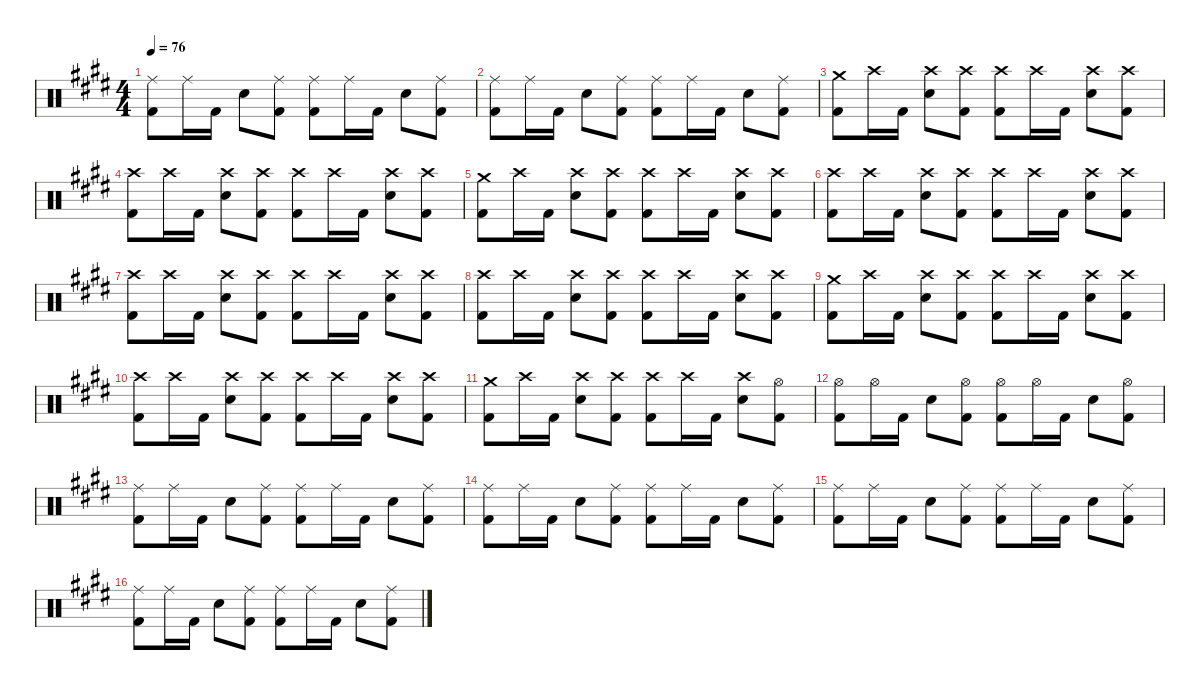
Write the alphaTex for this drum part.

\defaultSystemsLayout 4
\hideDynamics
\bracketExtendMode nobrackets
\singleTrackTrackNamePolicy hidden
\multiTrackTrackNamePolicy hidden
\firstSystemTrackNameMode fullname
\otherSystemsTrackNameOrientation horizontal
\track ("Drums" "drm.") {instrument percussion}
\staff {score}
\articulation defaults
\ts (4 4)
\tempo 76
\clef neutral
\ks e
("Ride (middle)"{acc forcenatural} "Kick (hit) 2"{acc forcenatural}).8{dy f beam Down} "Ride (middle)"{acc forcenatural}.16{beam Down} "Kick (hit) 2"{acc forcenatural}.16{beam Down} "Snare (hit) 2"{acc forcenatural}.8{beam Down} ("Ride (middle)"{acc forcenatural} "Kick (hit) 2"{acc forcenatural}).8{beam Down} ("Ride (middle)"{acc forcenatural} "Kick (hit) 2"{acc forcenatural}).8{beam Down} "Ride (middle)"{acc forcenatural}.16{beam Down} "Kick (hit) 2"{acc forcenatural}.16{beam Down} "Snare (hit) 2"{acc forcenatural}.8{beam Down} ("Ride (middle)"{acc forcenatural} "Kick (hit) 2"{acc forcenatural}).8{beam Down} |
("Ride (middle)"{acc forcenatural} "Kick (hit) 2"{acc forcenatural}).8{beam Down} "Ride (middle)"{acc forcenatural}.16{beam Down} "Kick (hit) 2"{acc forcenatural}.16{beam Down} "Snare (hit) 2"{acc forcenatural}.8{beam Down} ("Ride (middle)"{acc forcenatural} "Kick (hit) 2"{acc forcenatural}).8{beam Down} ("Ride (middle)"{acc forcenatural} "Kick (hit) 2"{acc forcenatural}).8{beam Down} "Ride (middle)"{acc forcenatural}.16{beam Down} "Kick (hit) 2"{acc forcenatural}.16{beam Down} "Snare (hit) 2"{acc forcenatural}.8{beam Down} ("Ride (middle)"{acc forcenatural} "Kick (hit) 2"{acc forcenatural}).8{beam Down} |
("Crash medium (hit)"{acc forcenatural} "Kick (hit) 2"{acc forcenatural}).8{beam Down} "Crash high (hit)"{acc forcenatural}.16{dy mf beam Down} "Kick (hit) 2"{acc forcenatural}.16{dy f beam Down} ("Crash high (hit)"{acc forcenatural} "Snare (hit) 2"{acc forcenatural}).8{dy mf beam Down} ("Crash high (hit)"{acc forcenatural} "Kick (hit) 2"{acc forcenatural}).8{beam Down} ("Crash high (hit)"{acc forcenatural} "Kick (hit) 2"{acc forcenatural}).8{beam Down} "Crash high (hit)"{acc forcenatural}.16{beam Down} "Kick (hit) 2"{acc forcenatural}.16{dy f beam Down} ("Crash high (hit)"{acc forcenatural} "Snare (hit) 2"{acc forcenatural}).8{dy mf beam Down} ("Crash high (hit)"{acc forcenatural} "Kick (hit) 2"{acc forcenatural}).8{beam Down} |
("Crash high (hit)"{acc forcenatural} "Kick (hit) 2"{acc forcenatural}).8{beam Down} "Crash high (hit)"{acc forcenatural}.16{beam Down} "Kick (hit) 2"{acc forcenatural}.16{dy f beam Down} ("Crash high (hit)"{acc forcenatural} "Snare (hit) 2"{acc forcenatural}).8{dy mf beam Down} ("Crash high (hit)"{acc forcenatural} "Kick (hit) 2"{acc forcenatural}).8{beam Down} ("Crash high (hit)"{acc forcenatural} "Kick (hit) 2"{acc forcenatural}).8{beam Down} "Crash high (hit)"{acc forcenatural}.16{beam Down} "Kick (hit) 2"{acc forcenatural}.16{dy f beam Down} ("Crash high (hit)"{acc forcenatural} "Snare (hit) 2"{acc forcenatural}).8{dy mf beam Down} ("Crash high (hit)"{acc forcenatural} "Kick (hit) 2"{acc forcenatural}).8{beam Down} |
("Crash medium (hit)"{acc forcenatural} "Kick (hit) 2"{acc forcenatural}).8{dy f beam Down} "Crash high (hit)"{acc forcenatural}.16{dy mf beam Down} "Kick (hit) 2"{acc forcenatural}.16{dy f beam Down} ("Crash high (hit)"{acc forcenatural} "Snare (hit) 2"{acc forcenatural}).8{dy mf beam Down} ("Crash high (hit)"{acc forcenatural} "Kick (hit) 2"{acc forcenatural}).8{beam Down} ("Crash high (hit)"{acc forcenatural} "Kick (hit) 2"{acc forcenatural}).8{beam Down} "Crash high (hit)"{acc forcenatural}.16{beam Down} "Kick (hit) 2"{acc forcenatural}.16{dy f beam Down} ("Crash high (hit)"{acc forcenatural} "Snare (hit) 2"{acc forcenatural}).8{dy mf beam Down} ("Crash high (hit)"{acc forcenatural} "Kick (hit) 2"{acc forcenatural}).8{beam Down} |
("Crash high (hit)"{acc forcenatural} "Kick (hit) 2"{acc forcenatural}).8{beam Down} "Crash high (hit)"{acc forcenatural}.16{dy mp beam Down} "Kick (hit) 2"{acc forcenatural}.16{dy f beam Down} ("Crash high (hit)"{acc forcenatural} "Snare (hit) 2"{acc forcenatural}).8{dy mf beam Down} ("Crash high (hit)"{acc forcenatural} "Kick (hit) 2"{acc forcenatural}).8{beam Down} ("Crash high (hit)"{acc forcenatural} "Kick (hit) 2"{acc forcenatural}).8{beam Down} "Crash high (hit)"{acc forcenatural}.16{beam Down} "Kick (hit) 2"{acc forcenatural}.16{dy f beam Down} ("Crash high (hit)"{acc forcenatural} "Snare (hit) 2"{acc forcenatural}).8{dy mf beam Down} ("Crash high (hit)"{acc forcenatural} "Kick (hit) 2"{acc forcenatural}).8{beam Down} |
("Crash high (hit)"{acc forcenatural} "Kick (hit) 2"{acc forcenatural}).8{beam Down} "Crash high (hit)"{acc forcenatural}.16{dy mp beam Down} "Kick (hit) 2"{acc forcenatural}.16{dy f beam Down} ("Crash high (hit)"{acc forcenatural} "Snare (hit) 2"{acc forcenatural}).8{dy mf beam Down} ("Crash high (hit)"{acc forcenatural} "Kick (hit) 2"{acc forcenatural}).8{beam Down} ("Crash high (hit)"{acc forcenatural} "Kick (hit) 2"{acc forcenatural}).8{beam Down} "Crash high (hit)"{acc forcenatural}.16{beam Down} "Kick (hit) 2"{acc forcenatural}.16{dy f beam Down} ("Crash high (hit)"{acc forcenatural} "Snare (hit) 2"{acc forcenatural}).8{dy mf beam Down} ("Crash high (hit)"{acc forcenatural} "Kick (hit) 2"{acc forcenatural}).8{beam Down} |
("Crash high (hit)"{acc forcenatural} "Kick (hit) 2"{acc forcenatural}).8{beam Down} "Crash high (hit)"{acc forcenatural}.16{beam Down} "Kick (hit) 2"{acc forcenatural}.16{dy f beam Down} ("Crash high (hit)"{acc forcenatural} "Snare (hit) 2"{acc forcenatural}).8{dy mf beam Down} ("Crash high (hit)"{acc forcenatural} "Kick (hit) 2"{acc forcenatural}).8{beam Down} ("Crash high (hit)"{acc forcenatural} "Kick (hit) 2"{acc forcenatural}).8{beam Down} "Crash high (hit)"{acc forcenatural}.16{beam Down} "Kick (hit) 2"{acc forcenatural}.16{dy f beam Down} ("Crash high (hit)"{acc forcenatural} "Snare (hit) 2"{acc forcenatural}).8{dy mf beam Down} ("Crash high (hit)"{acc forcenatural} "Kick (hit) 2"{acc forcenatural}).8{beam Down} |
("Crash medium (hit)"{acc forcenatural} "Kick (hit) 2"{acc forcenatural}).8{dy f beam Down} "Crash high (hit)"{acc forcenatural}.16{dy mf beam Down} "Kick (hit) 2"{acc forcenatural}.16{dy f beam Down} ("Crash high (hit)"{acc forcenatural} "Snare (hit) 2"{acc forcenatural}).8{dy mf beam Down} ("Crash high (hit)"{acc forcenatural} "Kick (hit) 2"{acc forcenatural}).8{beam Down} ("Crash high (hit)"{acc forcenatural} "Kick (hit) 2"{acc forcenatural}).8{beam Down} "Crash high (hit)"{acc forcenatural}.16{beam Down} "Kick (hit) 2"{acc forcenatural}.16{dy f beam Down} ("Crash high (hit)"{acc forcenatural} "Snare (hit) 2"{acc forcenatural}).8{dy mf beam Down} ("Crash high (hit)"{acc forcenatural} "Kick (hit) 2"{acc forcenatural}).8{beam Down} |
("Crash high (hit)"{acc forcenatural} "Kick (hit) 2"{acc forcenatural}).8{dy f beam Down} "Crash high (hit)"{acc forcenatural}.16{beam Down} "Kick (hit) 2"{acc forcenatural}.16{beam Down} ("Crash high (hit)"{acc forcenatural} "Snare (hit) 2"{acc forcenatural}).8{beam Down} ("Crash high (hit)"{acc forcenatural} "Kick (hit) 2"{acc forcenatural}).8{beam Down} ("Crash high (hit)"{acc forcenatural} "Kick (hit) 2"{acc forcenatural}).8{beam Down} "Crash high (hit)"{acc forcenatural}.16{beam Down} "Kick (hit) 2"{acc forcenatural}.16{beam Down} ("Crash high (hit)"{acc forcenatural} "Snare (hit) 2"{acc forcenatural}).8{beam Down} ("Crash high (hit)"{acc forcenatural} "Kick (hit) 2"{acc forcenatural}).8{beam Down} |
("Crash medium (hit)"{acc forcenatural} "Kick (hit) 2"{acc forcenatural}).8{beam Down} "Crash high (hit)"{acc forcenatural}.16{beam Down} "Kick (hit) 2"{acc forcenatural}.16{beam Down} ("Crash high (hit)"{acc forcenatural} "Snare (hit) 2"{acc forcenatural}).8{beam Down} ("Crash high (hit)"{acc forcenatural} "Kick (hit) 2"{acc forcenatural}).8{beam Down} ("Crash high (hit)"{acc forcenatural} "Kick (hit) 2"{acc forcenatural}).8{beam Down} "Crash high (hit)"{acc forcenatural}.16{beam Down} "Kick (hit) 2"{acc forcenatural}.16{beam Down} ("Crash high (hit)"{acc forcenatural} "Snare (hit) 2"{acc forcenatural}).8{beam Down} ("Hi-Hat (open)"{acc forcenatural} "Kick (hit) 2"{acc forcenatural}).8{beam Down} |
("Hi-Hat (open)"{acc forcenatural} "Kick (hit) 2"{acc forcenatural}).8{beam Down} "Hi-Hat (open)"{acc forcenatural}.16{beam Down} "Kick (hit) 2"{acc forcenatural}.16{beam Down} "Snare (hit) 2"{acc forcenatural}.8{beam Down} ("Hi-Hat (open)"{acc forcenatural} "Kick (hit) 2"{acc forcenatural}).8{beam Down} ("Hi-Hat (open)"{acc forcenatural} "Kick (hit) 2"{acc forcenatural}).8{beam Down} "Hi-Hat (open)"{acc forcenatural}.16{beam Down} "Kick (hit) 2"{acc forcenatural}.16{beam Down} "Snare (hit) 2"{acc forcenatural}.8{beam Down} ("Hi-Hat (open)"{acc forcenatural} "Kick (hit) 2"{acc forcenatural}).8{beam Down} |
("Ride (middle)"{acc forcenatural} "Kick (hit) 2"{acc forcenatural}).8{beam Down} "Ride (middle)"{acc forcenatural}.16{beam Down} "Kick (hit) 2"{acc forcenatural}.16{beam Down} "Snare (hit) 2"{acc forcenatural}.8{beam Down} ("Ride (middle)"{acc forcenatural} "Kick (hit) 2"{acc forcenatural}).8{beam Down} ("Ride (middle)"{acc forcenatural} "Kick (hit) 2"{acc forcenatural}).8{beam Down} "Ride (middle)"{acc forcenatural}.16{beam Down} "Kick (hit) 2"{acc forcenatural}.16{beam Down} "Snare (hit) 2"{acc forcenatural}.8{beam Down} ("Ride (middle)"{acc forcenatural} "Kick (hit) 2"{acc forcenatural}).8{beam Down} |
("Ride (middle)"{acc forcenatural} "Kick (hit) 2"{acc forcenatural}).8{beam Down} "Ride (middle)"{acc forcenatural}.16{beam Down} "Kick (hit) 2"{acc forcenatural}.16{beam Down} "Snare (hit) 2"{acc forcenatural}.8{beam Down} ("Ride (middle)"{acc forcenatural} "Kick (hit) 2"{acc forcenatural}).8{beam Down} ("Ride (middle)"{acc forcenatural} "Kick (hit) 2"{acc forcenatural}).8{beam Down} "Ride (middle)"{acc forcenatural}.16{beam Down} "Kick (hit) 2"{acc forcenatural}.16{beam Down} "Snare (hit) 2"{acc forcenatural}.8{beam Down} ("Ride (middle)"{acc forcenatural} "Kick (hit) 2"{acc forcenatural}).8{beam Down} |
("Ride (middle)"{acc forcenatural} "Kick (hit) 2"{acc forcenatural}).8{beam Down} "Ride (middle)"{acc forcenatural}.16{beam Down} "Kick (hit) 2"{acc forcenatural}.16{beam Down} "Snare (hit) 2"{acc forcenatural}.8{beam Down} ("Ride (middle)"{acc forcenatural} "Kick (hit) 2"{acc forcenatural}).8{beam Down} ("Ride (middle)"{acc forcenatural} "Kick (hit) 2"{acc forcenatural}).8{beam Down} "Ride (middle)"{acc forcenatural}.16{beam Down} "Kick (hit) 2"{acc forcenatural}.16{beam Down} "Snare (hit) 2"{acc forcenatural}.8{beam Down} ("Ride (middle)"{acc forcenatural} "Kick (hit) 2"{acc forcenatural}).8{beam Down} |
("Ride (middle)"{acc forcenatural} "Kick (hit) 2"{acc forcenatural}).8{beam Down} "Ride (middle)"{acc forcenatural}.16{beam Down} "Kick (hit) 2"{acc forcenatural}.16{beam Down} "Snare (hit) 2"{acc forcenatural}.8{beam Down} ("Ride (middle)"{acc forcenatural} "Kick (hit) 2"{acc forcenatural}).8{beam Down} ("Ride (middle)"{acc forcenatural} "Kick (hit) 2"{acc forcenatural}).8{beam Down} "Ride (middle)"{acc forcenatural}.16{beam Down} "Kick (hit) 2"{acc forcenatural}.16{beam Down} "Snare (hit) 2"{acc forcenatural}.8{beam Down} ("Ride (middle)"{acc forcenatural} "Kick (hit) 2"{acc forcenatural}).8{beam Down}
